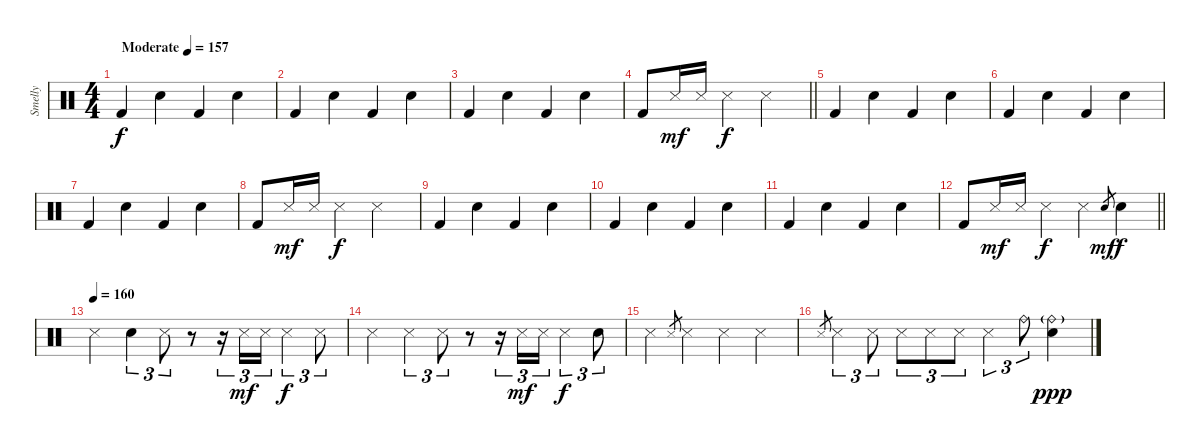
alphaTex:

\track ("Smelly" "Smelly") {instrument percussion}
\staff {score}
\articulation defaults
\ts (4 4)
\tempo (157 "Moderate")
\clef neutral
\ks c "Kick (hit) 2".4{dy f} "Electric Snare (hit)".4 "Kick (hit) 2".4 "Electric Snare (hit)".4
|
"Kick (hit) 2".4 "Electric Snare (hit)".4 "Kick (hit) 2".4 "Electric Snare (hit)".4 |
"Kick (hit) 2".4 "Electric Snare (hit)".4 "Kick (hit) 2".4 "Electric Snare (hit)".4 |
\barLineRight lightlight "Kick (hit) 2".8 "Snare (side stick) 3".16{dy mf} "Snare (side stick) 3".16 "Snare (side stick) 3".4{dy f} "Snare (side stick) 3".2
|
\section ("" "")
"Kick (hit) 2".4 "Electric Snare (hit)".4 "Kick (hit) 2".4 "Electric Snare (hit)".4 |
"Kick (hit) 2".4 "Electric Snare (hit)".4 "Kick (hit) 2".4 "Electric Snare (hit)".4 |
"Kick (hit) 2".4 "Electric Snare (hit)".4 "Kick (hit) 2".4 "Electric Snare (hit)".4 |
"Kick (hit) 2".8 "Snare (side stick) 3".16{dy mf} "Snare (side stick) 3".16 "Snare (side stick) 3".4{dy f} "Snare (side stick) 3".2 |
"Kick (hit) 2".4 "Electric Snare (hit)".4 "Kick (hit) 2".4 "Electric Snare (hit)".4 |
"Kick (hit) 2".4 "Electric Snare (hit)".4 "Kick (hit) 2".4 "Electric Snare (hit)".4 |
"Kick (hit) 2".4 "Electric Snare (hit)".4 "Kick (hit) 2".4 "Electric Snare (hit)".4 |
\barLineRight lightlight "Kick (hit) 2".8 "Snare (side stick) 3".16{dy mf} "Snare (side stick) 3".16 "Snare (side stick) 3".4{dy f} "Snare (side stick) 3".4 "Electric Snare (hit)".8{gr dy mf} "Electric Snare (hit)".4{dy f}
|
\section ("" "")
\tempo (160)
"Snare (side stick) 3".4 "Electric Snare (hit)".4{tu (3 2)} "Snare (side stick) 3".8{tu (3 2)} r.8 r.16{tu (3 2)} "Snare (side stick) 3".16{tu (3 2) dy mf} "Snare (side stick) 3".16{tu (3 2)} "Snare (side stick) 3".4{tu (3 2) dy f} "Snare (side stick) 3".8{tu (3 2)} |
"Snare (side stick) 3".4 "Snare (side stick) 3".4{tu (3 2)} "Snare (side stick) 3".8{tu (3 2)} r.8 r.16{tu (3 2)} "Snare (side stick) 3".16{tu (3 2) dy mf} "Snare (side stick) 3".16{tu (3 2)} "Snare (side stick) 3".4{tu (3 2) dy f} "Electric Snare (hit)".8{tu (3 2)} |
"Snare (side stick) 3".4 "Snare (side stick) 3".8{gr} "Snare (side stick) 3".4 "Snare (side stick) 3".4 "Snare (side stick) 3".4 |
"Snare (side stick) 3".8{gr} "Snare (side stick) 3".4{tu (3 2)} "Snare (side stick) 3".8{tu (3 2)} "Snare (side stick) 3".8{tu (3 2)} "Snare (side stick) 3".8{tu (3 2)} "Snare (side stick) 3".8{tu (3 2)} "Snare (side stick) 3".4{tu (3 2)} "Ride (bell)".8{tu (3 2)} ("Ride (bell)"{g} "Electric Snare (hit)").4{dy ppp}
